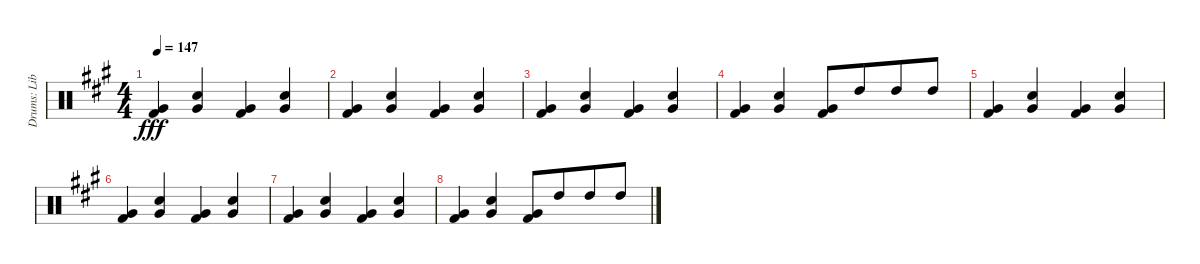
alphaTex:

\track ("Drums: Liberty" "Drums: Lib") {instrument percussion}
\staff {score}
\articulation defaults
\ts (4 4)
\tempo 147
\clef neutral
\ks a
("Very Low Tom (hit)" "Kick (hit) 2").4{dy fff} ("Electric Snare (hit)" "Very Low Tom (hit)").4 ("Very Low Tom (hit)" "Kick (hit) 2").4 ("Electric Snare (hit)" "Very Low Tom (hit)").4 |
("Very Low Tom (hit)" "Kick (hit) 2").4 ("Electric Snare (hit)" "Very Low Tom (hit)").4 ("Very Low Tom (hit)" "Kick (hit) 2").4 ("Electric Snare (hit)" "Very Low Tom (hit)").4 |
("Very Low Tom (hit)" "Kick (hit) 2").4 ("Electric Snare (hit)" "Very Low Tom (hit)").4 ("Very Low Tom (hit)" "Kick (hit) 2").4 ("Electric Snare (hit)" "Very Low Tom (hit)").4 |
("Very Low Tom (hit)" "Kick (hit) 2").4 ("Electric Snare (hit)" "Very Low Tom (hit)").4 ("Very Low Tom (hit)" "Kick (hit) 2").8{beam merge} "High Tom (hit)".8{beam merge} "High Tom (hit)".8{beam merge} "High Tom (hit)".8 |
("Very Low Tom (hit)" "Kick (hit) 2").4 ("Electric Snare (hit)" "Very Low Tom (hit)").4 ("Very Low Tom (hit)" "Kick (hit) 2").4 ("Electric Snare (hit)" "Very Low Tom (hit)").4 |
("Very Low Tom (hit)" "Kick (hit) 2").4 ("Electric Snare (hit)" "Very Low Tom (hit)").4 ("Very Low Tom (hit)" "Kick (hit) 2").4 ("Electric Snare (hit)" "Very Low Tom (hit)").4 |
("Very Low Tom (hit)" "Kick (hit) 2").4 ("Electric Snare (hit)" "Very Low Tom (hit)").4 ("Very Low Tom (hit)" "Kick (hit) 2").4 ("Electric Snare (hit)" "Very Low Tom (hit)").4 |
("Very Low Tom (hit)" "Kick (hit) 2").4 ("Electric Snare (hit)" "Very Low Tom (hit)").4 ("Very Low Tom (hit)" "Kick (hit) 2").8{beam merge} "High Tom (hit)".8{beam merge} "High Tom (hit)".8{beam merge} "High Tom (hit)".8
